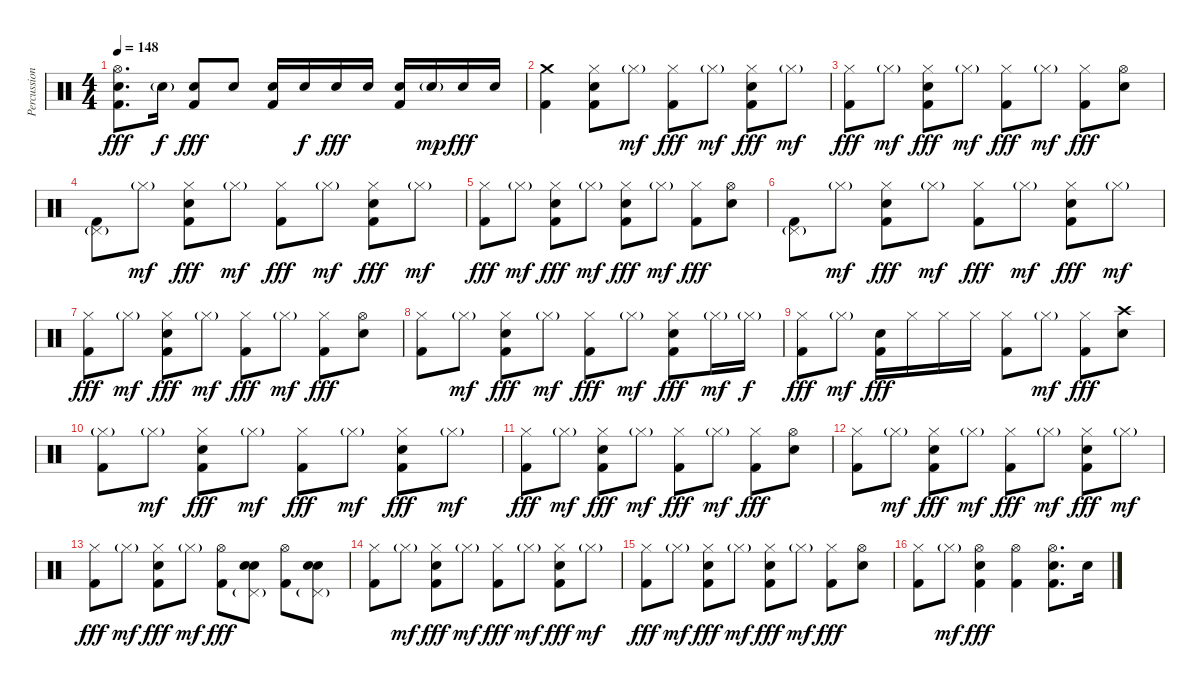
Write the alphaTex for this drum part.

\track ("Percussion" "Percussion") {instrument percussion}
\staff {score}
\articulation defaults
\ts (4 4)
\tempo 148
\clef neutral
\ks c
("Hi-Hat (open)" "Kick (hit) 2" "Electric Snare (hit)").8{d dy fff} "Electric Snare (hit)"{g}.16{dy f} ("Kick (hit) 2" "Electric Snare (hit)").8{dy fff} "Electric Snare (hit)".8 ("Kick (hit) 2" "Electric Snare (hit)").16 "Electric Snare (hit)".16{dy f} "Electric Snare (hit)".16{dy fff} "Electric Snare (hit)".16 ("Kick (hit) 2" "Electric Snare (hit)").16 "Electric Snare (hit)"{g}.16{dy mp} "Electric Snare (hit)".16{dy fff} "Electric Snare (hit)".16 |
("Crash medium (hit)" "Kick (hit) 2").4 ("Hi-Hat (closed)" "Kick (hit) 2" "Electric Snare (hit)").8 "Hi-Hat (closed)"{g}.8{dy mf} ("Hi-Hat (closed)" "Kick (hit) 2").8{dy fff} "Hi-Hat (closed)"{g}.8{dy mf} ("Hi-Hat (closed)" "Kick (hit) 2" "Electric Snare (hit)").8{dy fff} "Hi-Hat (closed)"{g}.8{dy mf} |
("Hi-Hat (closed)" "Kick (hit) 2").8{dy fff} "Hi-Hat (closed)"{g}.8{dy mf} ("Hi-Hat (closed)" "Kick (hit) 2" "Electric Snare (hit)").8{dy fff} "Hi-Hat (closed)"{g}.8{dy mf} ("Hi-Hat (closed)" "Kick (hit) 2").8{dy fff} "Hi-Hat (closed)"{g}.8{dy mf} ("Hi-Hat (closed)" "Kick (hit) 2").8{dy fff} ("Hi-Hat (open)" "Electric Snare (hit)").8 |
("Pedal Hi-Hat (hit)"{g} "Kick (hit) 2").8 "Hi-Hat (closed)"{g}.8{dy mf} ("Hi-Hat (closed)" "Kick (hit) 2" "Electric Snare (hit)").8{dy fff} "Hi-Hat (closed)"{g}.8{dy mf} ("Hi-Hat (closed)" "Kick (hit) 2").8{dy fff} "Hi-Hat (closed)"{g}.8{dy mf} ("Hi-Hat (closed)" "Kick (hit) 2" "Electric Snare (hit)").8{dy fff} "Hi-Hat (closed)"{g}.8{dy mf} |
("Hi-Hat (closed)" "Kick (hit) 2").8{dy fff} "Hi-Hat (closed)"{g}.8{dy mf} ("Hi-Hat (closed)" "Kick (hit) 2" "Electric Snare (hit)").8{dy fff} "Hi-Hat (closed)"{g}.8{dy mf} ("Hi-Hat (closed)" "Kick (hit) 2" "Electric Snare (hit)").8{dy fff} "Hi-Hat (closed)"{g}.8{dy mf} ("Hi-Hat (closed)" "Kick (hit) 2").8{dy fff} ("Hi-Hat (open)" "Electric Snare (hit)").8 |
("Pedal Hi-Hat (hit)"{g} "Kick (hit) 2").8 "Hi-Hat (closed)"{g}.8{dy mf} ("Hi-Hat (closed)" "Kick (hit) 2" "Electric Snare (hit)").8{dy fff} "Hi-Hat (closed)"{g}.8{dy mf} ("Hi-Hat (closed)" "Kick (hit) 2").8{dy fff} "Hi-Hat (closed)"{g}.8{dy mf} ("Hi-Hat (closed)" "Kick (hit) 2" "Electric Snare (hit)").8{dy fff} "Hi-Hat (closed)"{g}.8{dy mf} |
("Hi-Hat (closed)" "Kick (hit) 2").8{dy fff} "Hi-Hat (closed)"{g}.8{dy mf} ("Hi-Hat (closed)" "Kick (hit) 2" "Electric Snare (hit)").8{dy fff} "Hi-Hat (closed)"{g}.8{dy mf} ("Hi-Hat (closed)" "Kick (hit) 2").8{dy fff} "Hi-Hat (closed)"{g}.8{dy mf} ("Hi-Hat (closed)" "Kick (hit) 2").8{dy fff} ("Hi-Hat (open)" "Electric Snare (hit)").8 |
("Hi-Hat (closed)" "Kick (hit) 2").8 "Hi-Hat (closed)"{g}.8{dy mf} ("Hi-Hat (closed)" "Kick (hit) 2" "Electric Snare (hit)").8{dy fff} "Hi-Hat (closed)"{g}.8{dy mf} ("Hi-Hat (closed)" "Kick (hit) 2").8{dy fff} "Hi-Hat (closed)"{g}.8{dy mf} ("Hi-Hat (closed)" "Kick (hit) 2" "Electric Snare (hit)").8{dy fff} "Hi-Hat (closed)"{g}.16{dy mf} "Hi-Hat (closed)"{g}.16{dy f} |
("Hi-Hat (closed)" "Kick (hit) 2").8{dy fff} "Hi-Hat (closed)"{g}.8{dy mf} ("Kick (hit) 2" "Electric Snare (hit)").16{dy fff} "Hi-Hat (closed)".16 "Hi-Hat (closed)".16 "Hi-Hat (closed)".16 ("Hi-Hat (closed)" "Kick (hit) 2").8 "Hi-Hat (closed)"{g}.8{dy mf} ("Hi-Hat (closed)" "Kick (hit) 2").8{dy fff} ("Crash high (hit)" "Electric Snare (hit)").8 |
("Hi-Hat (closed)"{g} "Kick (hit) 2").8 "Hi-Hat (closed)"{g}.8{dy mf} ("Hi-Hat (closed)" "Kick (hit) 2" "Electric Snare (hit)").8{dy fff} "Hi-Hat (closed)"{g}.8{dy mf} ("Hi-Hat (closed)" "Kick (hit) 2").8{dy fff} "Hi-Hat (closed)"{g}.8{dy mf} ("Hi-Hat (closed)" "Kick (hit) 2" "Electric Snare (hit)").8{dy fff} "Hi-Hat (closed)"{g}.8{dy mf} |
("Hi-Hat (closed)" "Kick (hit) 2").8{dy fff} "Hi-Hat (closed)"{g}.8{dy mf} ("Hi-Hat (closed)" "Kick (hit) 2" "Electric Snare (hit)").8{dy fff} "Hi-Hat (closed)"{g}.8{dy mf} ("Hi-Hat (closed)" "Kick (hit) 2").8{dy fff} "Hi-Hat (closed)"{g}.8{dy mf} ("Hi-Hat (closed)" "Kick (hit) 2").8{dy fff} ("Hi-Hat (open)" "Electric Snare (hit)").8 |
("Hi-Hat (closed)" "Kick (hit) 2").8 "Hi-Hat (closed)"{g}.8{dy mf} ("Hi-Hat (closed)" "Kick (hit) 2" "Electric Snare (hit)").8{dy fff} "Hi-Hat (closed)"{g}.8{dy mf} ("Hi-Hat (closed)" "Kick (hit) 2").8{dy fff} "Hi-Hat (closed)"{g}.8{dy mf} ("Hi-Hat (closed)" "Kick (hit) 2" "Electric Snare (hit)").8{dy fff} "Hi-Hat (closed)"{g}.8{dy mf} |
("Hi-Hat (closed)" "Kick (hit) 2").8{dy fff} "Hi-Hat (closed)"{g}.8{dy mf} ("Hi-Hat (closed)" "Kick (hit) 2" "Electric Snare (hit)").8{dy fff} "Hi-Hat (closed)"{g}.8{dy mf} ("Hi-Hat (open)" "Kick (hit) 2").8{dy fff} ("Pedal Hi-Hat (hit)"{g} "Electric Snare (hit)" "Electric Snare (hit)").8{bd 240} ("Hi-Hat (open)" "Kick (hit) 2").8 ("Pedal Hi-Hat (hit)"{g} "Electric Snare (hit)" "Electric Snare (hit)").8{bd 240} |
("Hi-Hat (closed)" "Kick (hit) 2").8 "Hi-Hat (closed)"{g}.8{dy mf} ("Hi-Hat (closed)" "Kick (hit) 2" "Electric Snare (hit)").8{dy fff} "Hi-Hat (closed)"{g}.8{dy mf} ("Hi-Hat (closed)" "Kick (hit) 2").8{dy fff} "Hi-Hat (closed)"{g}.8{dy mf} ("Hi-Hat (closed)" "Kick (hit) 2" "Electric Snare (hit)").8{dy fff} "Hi-Hat (closed)"{g}.8{dy mf} |
("Hi-Hat (closed)" "Kick (hit) 2").8{dy fff} "Hi-Hat (closed)"{g}.8{dy mf} ("Hi-Hat (closed)" "Kick (hit) 2" "Electric Snare (hit)").8{dy fff} "Hi-Hat (closed)"{g}.8{dy mf} ("Hi-Hat (closed)" "Kick (hit) 2" "Electric Snare (hit)").8{dy fff} "Hi-Hat (closed)"{g}.8{dy mf} ("Hi-Hat (closed)" "Kick (hit) 2").8{dy fff} ("Hi-Hat (open)" "Electric Snare (hit)").8 |
("Hi-Hat (closed)" "Kick (hit) 2").8 "Hi-Hat (closed)"{g}.8{dy mf} ("Hi-Hat (open)" "Kick (hit) 2" "Electric Snare (hit)").4{dy fff} ("Hi-Hat (open)" "Kick (hit) 2").4 ("Hi-Hat (open)" "Kick (hit) 2" "Electric Snare (hit)").8{d} "Electric Snare (hit)".16
